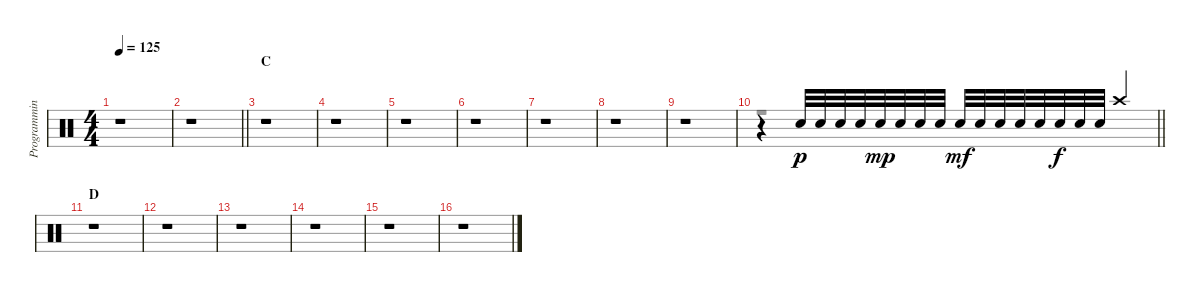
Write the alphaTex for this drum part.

\track ("Programming" "Programmin") {instrument percussion}
\staff {score}
\articulation defaults
\voice
\ts (4 4)
\tempo 125
\clef neutral
\ks c
r.1{dy f} |
\barLineRight lightlight
r.1 |
\section ("" "C")
r.1 |
r.1 |
r.1 |
r.1 |
r.1 |
r.1 |
r.1 |
\barLineRight lightlight
r.4 "Electric Snare (hit)".32{dy p} "Electric Snare (hit)".32 "Electric Snare (hit)".32 "Electric Snare (hit)".32 "Electric Snare (hit)".32{dy mp} "Electric Snare (hit)".32 "Electric Snare (hit)".32 "Electric Snare (hit)".32 "Electric Snare (hit)".32{dy mf} "Electric Snare (hit)".32 "Electric Snare (hit)".32 "Electric Snare (hit)".32 "Electric Snare (hit)".32 "Electric Snare (hit)".32{dy f} "Electric Snare (hit)".32 "Electric Snare (hit)".32 "Crash high (hit)".4 |
\section ("" "D")
r.1 |
r.1 |
r.1 |
r.1 |
r.1 |
r.1
\voice
\clef neutral
\ottava regular
\simile none
\ks c
r.1{dy fff} |
\barLineRight lightlight
r.1 |
r.1 |
r.1 |
r.1 |
r.1 |
r.1 |
r.1 |
r.1 |
\barLineRight lightlight
r.1 |
r.1 |
r.1 |
r.1 |
r.1 |
r.1 |
r.1
